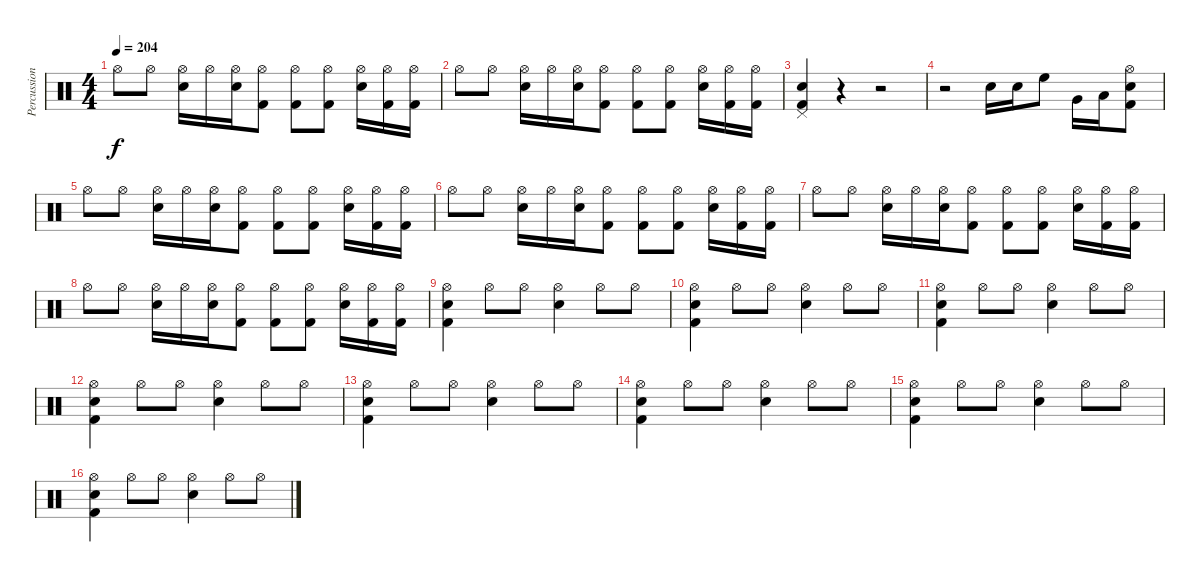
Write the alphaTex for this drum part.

\track ("Percussion" "Percussion") {instrument percussion}
\staff {score}
\articulation defaults
\ts (4 4)
\tempo 204
\clef neutral
\ks c "Hi-Hat (open)".8{dy f} "Hi-Hat (open)".8
("Hi-Hat (open)" "Snare (hit) 2").16 "Hi-Hat (open)".16 ("Hi-Hat (open)" "Snare (hit) 2").16 ("Hi-Hat (open)" "Kick (hit) 2").8 ("Hi-Hat (open)" "Kick (hit) 2").8 ("Hi-Hat (open)" "Kick (hit) 2").8 ("Hi-Hat (open)" "Snare (hit) 2").16 ("Hi-Hat (open)" "Kick (hit) 2").16 ("Hi-Hat (open)" "Kick (hit) 2").16 |
"Hi-Hat (open)".8 "Hi-Hat (open)".8 ("Hi-Hat (open)" "Snare (hit) 2").16 "Hi-Hat (open)".16 ("Hi-Hat (open)" "Snare (hit) 2").16 ("Hi-Hat (open)" "Kick (hit) 2").8 ("Hi-Hat (open)" "Kick (hit) 2").8 ("Hi-Hat (open)" "Kick (hit) 2").8 ("Hi-Hat (open)" "Snare (hit) 2").16 ("Hi-Hat (open)" "Kick (hit) 2").16 ("Hi-Hat (open)" "Kick (hit) 2").16 |
("Pedal Hi-Hat (hit)" "Snare (hit) 2" "Kick (hit) 2").4 r.4 r.2 |
r.2 "Snare (hit) 2".16 "Snare (hit) 2".16 "High Floor Tom (hit)".8 "Very Low Tom (hit)".16 "Low Tom (hit)".16 ("Hi-Hat (open)" "Snare (hit) 2" "Kick (hit) 2").8 |
"Hi-Hat (open)".8 "Hi-Hat (open)".8 ("Hi-Hat (open)" "Snare (hit) 2").16 "Hi-Hat (open)".16 ("Hi-Hat (open)" "Snare (hit) 2").16 ("Hi-Hat (open)" "Kick (hit) 2").8 ("Hi-Hat (open)" "Kick (hit) 2").8 ("Hi-Hat (open)" "Kick (hit) 2").8 ("Hi-Hat (open)" "Snare (hit) 2").16 ("Hi-Hat (open)" "Kick (hit) 2").16 ("Hi-Hat (open)" "Kick (hit) 2").16 |
"Hi-Hat (open)".8 "Hi-Hat (open)".8 ("Hi-Hat (open)" "Snare (hit) 2").16 "Hi-Hat (open)".16 ("Hi-Hat (open)" "Snare (hit) 2").16 ("Hi-Hat (open)" "Kick (hit) 2").8 ("Hi-Hat (open)" "Kick (hit) 2").8 ("Hi-Hat (open)" "Kick (hit) 2").8 ("Hi-Hat (open)" "Snare (hit) 2").16 ("Hi-Hat (open)" "Kick (hit) 2").16 ("Hi-Hat (open)" "Kick (hit) 2").16 |
"Hi-Hat (open)".8 "Hi-Hat (open)".8 ("Hi-Hat (open)" "Snare (hit) 2").16 "Hi-Hat (open)".16 ("Hi-Hat (open)" "Snare (hit) 2").16 ("Hi-Hat (open)" "Kick (hit) 2").8 ("Hi-Hat (open)" "Kick (hit) 2").8 ("Hi-Hat (open)" "Kick (hit) 2").8 ("Hi-Hat (open)" "Snare (hit) 2").16 ("Hi-Hat (open)" "Kick (hit) 2").16 ("Hi-Hat (open)" "Kick (hit) 2").16 |
"Hi-Hat (open)".8 "Hi-Hat (open)".8 ("Hi-Hat (open)" "Snare (hit) 2").16 "Hi-Hat (open)".16 ("Hi-Hat (open)" "Snare (hit) 2").16 ("Hi-Hat (open)" "Kick (hit) 2").8 ("Hi-Hat (open)" "Kick (hit) 2").8 ("Hi-Hat (open)" "Kick (hit) 2").8 ("Hi-Hat (open)" "Snare (hit) 2").16 ("Hi-Hat (open)" "Kick (hit) 2").16 ("Hi-Hat (open)" "Kick (hit) 2").16 |
("Hi-Hat (open)" "Snare (hit) 2" "Kick (hit) 2").4 "Hi-Hat (open)".8 "Hi-Hat (open)".8 ("Hi-Hat (open)" "Snare (hit) 2").4 "Hi-Hat (open)".8 "Hi-Hat (open)".8 |
("Hi-Hat (open)" "Snare (hit) 2" "Kick (hit) 2").4 "Hi-Hat (open)".8 "Hi-Hat (open)".8 ("Hi-Hat (open)" "Snare (hit) 2").4 "Hi-Hat (open)".8 "Hi-Hat (open)".8 |
("Hi-Hat (open)" "Snare (hit) 2" "Kick (hit) 2").4 "Hi-Hat (open)".8 "Hi-Hat (open)".8 ("Hi-Hat (open)" "Snare (hit) 2").4 "Hi-Hat (open)".8 "Hi-Hat (open)".8 |
("Hi-Hat (open)" "Snare (hit) 2" "Kick (hit) 2").4 "Hi-Hat (open)".8 "Hi-Hat (open)".8 ("Hi-Hat (open)" "Snare (hit) 2").4 "Hi-Hat (open)".8 "Hi-Hat (open)".8 |
("Hi-Hat (open)" "Snare (hit) 2" "Kick (hit) 2").4 "Hi-Hat (open)".8 "Hi-Hat (open)".8 ("Hi-Hat (open)" "Snare (hit) 2").4 "Hi-Hat (open)".8 "Hi-Hat (open)".8 |
("Hi-Hat (open)" "Snare (hit) 2" "Kick (hit) 2").4 "Hi-Hat (open)".8 "Hi-Hat (open)".8 ("Hi-Hat (open)" "Snare (hit) 2").4 "Hi-Hat (open)".8 "Hi-Hat (open)".8 |
("Hi-Hat (open)" "Snare (hit) 2" "Kick (hit) 2").4 "Hi-Hat (open)".8 "Hi-Hat (open)".8 ("Hi-Hat (open)" "Snare (hit) 2").4 "Hi-Hat (open)".8 "Hi-Hat (open)".8 |
("Hi-Hat (open)" "Snare (hit) 2" "Kick (hit) 2").4 "Hi-Hat (open)".8 "Hi-Hat (open)".8 ("Hi-Hat (open)" "Snare (hit) 2").4 "Hi-Hat (open)".8 "Hi-Hat (open)".8
